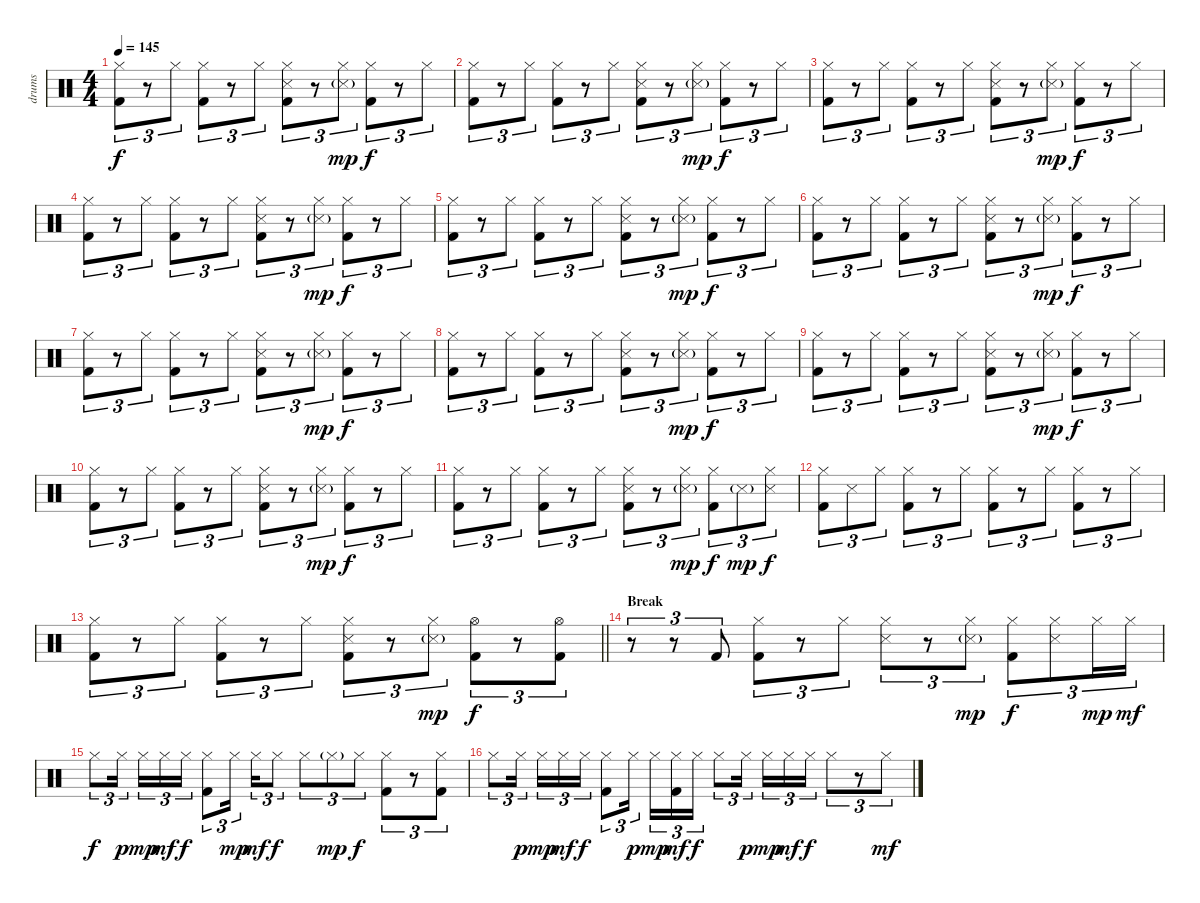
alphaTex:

\track ("drums" "drums") {instrument percussion}
\staff {score}
\articulation defaults
\ts (4 4)
\tempo 145
\clef neutral
\ks c
("Hi-Hat (closed)" "Kick (hit) 2").8{tu (3 2) dy f} r.8{tu (3 2)} "Hi-Hat (closed)".8{tu (3 2)} ("Hi-Hat (closed)" "Kick (hit) 2").8{tu (3 2)} r.8{tu (3 2)} "Hi-Hat (closed)".8{tu (3 2)} ("Hi-Hat (closed)" "Snare (side stick) 3" "Kick (hit) 2").8{tu (3 2)} r.8{tu (3 2)} ("Hi-Hat (closed)" "Snare (side stick) 3"{g}).8{tu (3 2) dy mp} ("Hi-Hat (closed)" "Kick (hit) 2").8{tu (3 2) dy f} r.8{tu (3 2)} "Hi-Hat (closed)".8{tu (3 2)} |
("Hi-Hat (closed)" "Kick (hit) 2").8{tu (3 2)} r.8{tu (3 2)} "Hi-Hat (closed)".8{tu (3 2)} ("Hi-Hat (closed)" "Kick (hit) 2").8{tu (3 2)} r.8{tu (3 2)} "Hi-Hat (closed)".8{tu (3 2)} ("Hi-Hat (closed)" "Snare (side stick) 3" "Kick (hit) 2").8{tu (3 2)} r.8{tu (3 2)} ("Hi-Hat (closed)" "Snare (side stick) 3"{g}).8{tu (3 2) dy mp} ("Hi-Hat (closed)" "Kick (hit) 2").8{tu (3 2) dy f} r.8{tu (3 2)} "Hi-Hat (closed)".8{tu (3 2)} |
("Hi-Hat (closed)" "Kick (hit) 2").8{tu (3 2)} r.8{tu (3 2)} "Hi-Hat (closed)".8{tu (3 2)} ("Hi-Hat (closed)" "Kick (hit) 2").8{tu (3 2)} r.8{tu (3 2)} "Hi-Hat (closed)".8{tu (3 2)} ("Hi-Hat (closed)" "Snare (side stick) 3" "Kick (hit) 2").8{tu (3 2)} r.8{tu (3 2)} ("Hi-Hat (closed)" "Snare (side stick) 3"{g}).8{tu (3 2) dy mp} ("Hi-Hat (closed)" "Kick (hit) 2").8{tu (3 2) dy f} r.8{tu (3 2)} "Hi-Hat (closed)".8{tu (3 2)} |
("Hi-Hat (closed)" "Kick (hit) 2").8{tu (3 2)} r.8{tu (3 2)} "Hi-Hat (closed)".8{tu (3 2)} ("Hi-Hat (closed)" "Kick (hit) 2").8{tu (3 2)} r.8{tu (3 2)} "Hi-Hat (closed)".8{tu (3 2)} ("Hi-Hat (closed)" "Snare (side stick) 3" "Kick (hit) 2").8{tu (3 2)} r.8{tu (3 2)} ("Hi-Hat (closed)" "Snare (side stick) 3"{g}).8{tu (3 2) dy mp} ("Hi-Hat (closed)" "Kick (hit) 2").8{tu (3 2) dy f} r.8{tu (3 2)} "Hi-Hat (closed)".8{tu (3 2)} |
("Hi-Hat (closed)" "Kick (hit) 2").8{tu (3 2)} r.8{tu (3 2)} "Hi-Hat (closed)".8{tu (3 2)} ("Hi-Hat (closed)" "Kick (hit) 2").8{tu (3 2)} r.8{tu (3 2)} "Hi-Hat (closed)".8{tu (3 2)} ("Hi-Hat (closed)" "Snare (side stick) 3" "Kick (hit) 2").8{tu (3 2)} r.8{tu (3 2)} ("Hi-Hat (closed)" "Snare (side stick) 3"{g}).8{tu (3 2) dy mp} ("Hi-Hat (closed)" "Kick (hit) 2").8{tu (3 2) dy f} r.8{tu (3 2)} "Hi-Hat (closed)".8{tu (3 2)} |
("Hi-Hat (closed)" "Kick (hit) 2").8{tu (3 2)} r.8{tu (3 2)} "Hi-Hat (closed)".8{tu (3 2)} ("Hi-Hat (closed)" "Kick (hit) 2").8{tu (3 2)} r.8{tu (3 2)} "Hi-Hat (closed)".8{tu (3 2)} ("Hi-Hat (closed)" "Snare (side stick) 3" "Kick (hit) 2").8{tu (3 2)} r.8{tu (3 2)} ("Hi-Hat (closed)" "Snare (side stick) 3"{g}).8{tu (3 2) dy mp} ("Hi-Hat (closed)" "Kick (hit) 2").8{tu (3 2) dy f} r.8{tu (3 2)} "Hi-Hat (closed)".8{tu (3 2)} |
("Hi-Hat (closed)" "Kick (hit) 2").8{tu (3 2)} r.8{tu (3 2)} "Hi-Hat (closed)".8{tu (3 2)} ("Hi-Hat (closed)" "Kick (hit) 2").8{tu (3 2)} r.8{tu (3 2)} "Hi-Hat (closed)".8{tu (3 2)} ("Hi-Hat (closed)" "Snare (side stick) 3" "Kick (hit) 2").8{tu (3 2)} r.8{tu (3 2)} ("Hi-Hat (closed)" "Snare (side stick) 3"{g}).8{tu (3 2) dy mp} ("Hi-Hat (closed)" "Kick (hit) 2").8{tu (3 2) dy f} r.8{tu (3 2)} "Hi-Hat (closed)".8{tu (3 2)} |
("Hi-Hat (closed)" "Kick (hit) 2").8{tu (3 2)} r.8{tu (3 2)} "Hi-Hat (closed)".8{tu (3 2)} ("Hi-Hat (closed)" "Kick (hit) 2").8{tu (3 2)} r.8{tu (3 2)} "Hi-Hat (closed)".8{tu (3 2)} ("Hi-Hat (closed)" "Snare (side stick) 3" "Kick (hit) 2").8{tu (3 2)} r.8{tu (3 2)} ("Hi-Hat (closed)" "Snare (side stick) 3"{g}).8{tu (3 2) dy mp} ("Hi-Hat (closed)" "Kick (hit) 2").8{tu (3 2) dy f} r.8{tu (3 2)} "Hi-Hat (closed)".8{tu (3 2)} |
("Hi-Hat (closed)" "Kick (hit) 2").8{tu (3 2)} r.8{tu (3 2)} "Hi-Hat (closed)".8{tu (3 2)} ("Hi-Hat (closed)" "Kick (hit) 2").8{tu (3 2)} r.8{tu (3 2)} "Hi-Hat (closed)".8{tu (3 2)} ("Hi-Hat (closed)" "Snare (side stick) 3" "Kick (hit) 2").8{tu (3 2)} r.8{tu (3 2)} ("Hi-Hat (closed)" "Snare (side stick) 3"{g}).8{tu (3 2) dy mp} ("Hi-Hat (closed)" "Kick (hit) 2").8{tu (3 2) dy f} r.8{tu (3 2)} "Hi-Hat (closed)".8{tu (3 2)} |
("Hi-Hat (closed)" "Kick (hit) 2").8{tu (3 2)} r.8{tu (3 2)} "Hi-Hat (closed)".8{tu (3 2)} ("Hi-Hat (closed)" "Kick (hit) 2").8{tu (3 2)} r.8{tu (3 2)} "Hi-Hat (closed)".8{tu (3 2)} ("Hi-Hat (closed)" "Snare (side stick) 3" "Kick (hit) 2").8{tu (3 2)} r.8{tu (3 2)} ("Hi-Hat (closed)" "Snare (side stick) 3"{g}).8{tu (3 2) dy mp} ("Hi-Hat (closed)" "Kick (hit) 2").8{tu (3 2) dy f} r.8{tu (3 2)} "Hi-Hat (closed)".8{tu (3 2)} |
("Hi-Hat (closed)" "Kick (hit) 2").8{tu (3 2)} r.8{tu (3 2)} "Hi-Hat (closed)".8{tu (3 2)} ("Hi-Hat (closed)" "Kick (hit) 2").8{tu (3 2)} r.8{tu (3 2)} "Hi-Hat (closed)".8{tu (3 2)} ("Hi-Hat (closed)" "Snare (side stick) 3" "Kick (hit) 2").8{tu (3 2)} r.8{tu (3 2)} ("Hi-Hat (closed)" "Snare (side stick) 3"{g}).8{tu (3 2) dy mp} ("Hi-Hat (closed)" "Kick (hit) 2").8{tu (3 2) dy f} "Snare (side stick) 3"{g}.8{tu (3 2) dy mp} ("Hi-Hat (closed)" "Snare (side stick) 3").8{tu (3 2) dy f} |
("Hi-Hat (closed)" "Kick (hit) 2").8{tu (3 2)} "Snare (side stick) 3".8{tu (3 2)} "Hi-Hat (closed)".8{tu (3 2)} ("Hi-Hat (closed)" "Kick (hit) 2").8{tu (3 2)} r.8{tu (3 2)} "Hi-Hat (closed)".8{tu (3 2)} ("Hi-Hat (closed)" "Kick (hit) 2").8{tu (3 2)} r.8{tu (3 2)} "Hi-Hat (closed)".8{tu (3 2)} ("Hi-Hat (closed)" "Kick (hit) 2").8{tu (3 2)} r.8{tu (3 2)} "Hi-Hat (closed)".8{tu (3 2)} |
\barLineRight lightlight
("Hi-Hat (closed)" "Kick (hit) 2").8{tu (3 2)} r.8{tu (3 2)} "Hi-Hat (closed)".8{tu (3 2)} ("Hi-Hat (closed)" "Kick (hit) 2").8{tu (3 2)} r.8{tu (3 2)} "Hi-Hat (closed)".8{tu (3 2)} ("Hi-Hat (closed)" "Snare (side stick) 3" "Kick (hit) 2").8{tu (3 2)} r.8{tu (3 2)} ("Hi-Hat (closed)" "Snare (side stick) 3"{g}).8{tu (3 2) dy mp} ("Hi-Hat (open)" "Kick (hit) 2").8{tu (3 2) dy f} r.8{tu (3 2)} ("Hi-Hat (open)" "Kick (hit) 2").8{tu (3 2)} |
\section ("" "Break")
r.8{tu (3 2)} r.8{tu (3 2)} "Kick (hit) 2".8{tu (3 2)} ("Hi-Hat (closed)" "Kick (hit) 2").8{tu (3 2)} r.8{tu (3 2)} "Hi-Hat (closed)".8{tu (3 2)} ("Hi-Hat (closed)" "Snare (side stick) 3").8{tu (3 2)} r.8{tu (3 2)} ("Hi-Hat (closed)" "Snare (side stick) 3"{g}).8{tu (3 2) dy mp} ("Hi-Hat (closed)" "Kick (hit) 2").8{tu (3 2) dy f} ("Hi-Hat (closed)" "Snare (side stick) 3").8{tu (3 2)} "Hi-Hat (closed)".16{tu (3 2) dy mp} "Hi-Hat (closed)".16{tu (3 2) dy mf} |
"Hi-Hat (closed)".8{tu (3 2) dy f} "Hi-Hat (closed)".16{tu (3 2) dy p} "Hi-Hat (closed)".16{tu (3 2) dy mp} "Hi-Hat (closed)".16{tu (3 2) dy mf} "Hi-Hat (closed)".16{tu (3 2) dy f} ("Hi-Hat (closed)" "Kick (hit) 2").8{tu (3 2)} "Hi-Hat (closed)".16{tu (3 2) dy mp} "Hi-Hat (closed)".16{tu (3 2) dy mf} "Hi-Hat (closed)".8{tu (3 2) dy f} "Hi-Hat (closed)".8{tu (3 2)} "Hi-Hat (closed)"{g}.8{tu (3 2) dy mp} "Hi-Hat (closed)".8{tu (3 2) dy f} ("Hi-Hat (closed)" "Kick (hit) 2").8{tu (3 2)} r.8{tu (3 2)} ("Hi-Hat (closed)" "Kick (hit) 2").8{tu (3 2)} |
"Hi-Hat (closed)".8{tu (3 2)} "Hi-Hat (closed)".16{tu (3 2) dy p} "Hi-Hat (closed)".16{tu (3 2) dy mp} "Hi-Hat (closed)".16{tu (3 2) dy mf} "Hi-Hat (closed)".16{tu (3 2) dy f} ("Hi-Hat (closed)" "Kick (hit) 2").8{tu (3 2)} "Hi-Hat (closed)".16{tu (3 2) dy p} "Hi-Hat (closed)".16{tu (3 2) dy mp} ("Hi-Hat (closed)" "Kick (hit) 2").16{tu (3 2) dy mf} "Hi-Hat (closed)".16{tu (3 2) dy f} "Hi-Hat (closed)".8{tu (3 2)} "Hi-Hat (closed)".16{tu (3 2) dy p} "Hi-Hat (closed)".16{tu (3 2) dy mp} "Hi-Hat (closed)".16{tu (3 2) dy mf} "Hi-Hat (closed)".16{tu (3 2) dy f} "Hi-Hat (closed)".8{tu (3 2)} r.8{tu (3 2)} "Hi-Hat (closed)".8{tu (3 2) dy mf}
